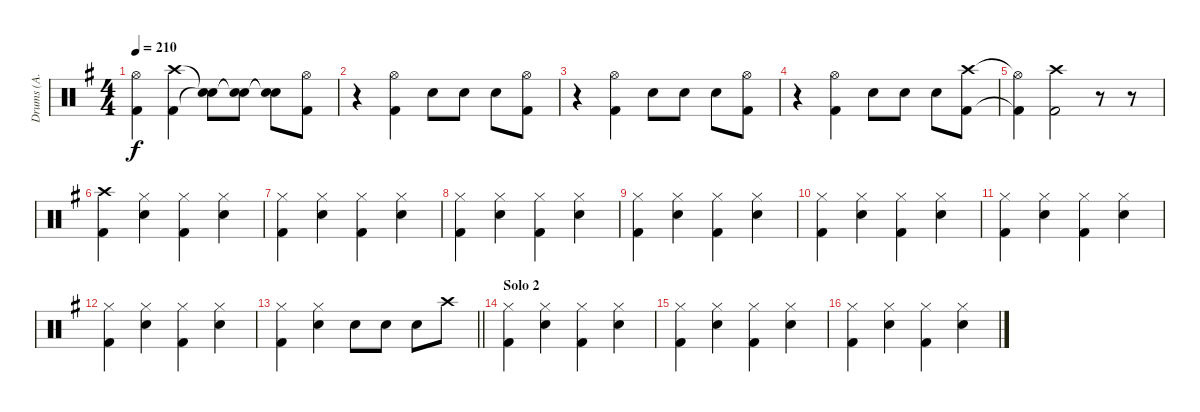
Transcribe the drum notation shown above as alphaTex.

\track ("Drums (А. Манякин)" "Drums (А. ") {instrument percussion}
\staff {score}
\articulation defaults
\ts (4 4)
\tempo 210
\clef neutral
\ks g
("Hi-Hat (open)"{t} "Kick (hit) 2"{t}).4{dy f} ("Crash high (hit)" "Kick (hit) 2").4 ("Snare (hit)"{t} "Snare (hit) 2"{t}).8 ("Snare (hit)"{t} "Snare (hit) 2"{t}).8 ("Snare (hit)"{t} "Snare (hit) 2"{t}).8 ("Hi-Hat (open)" "Kick (hit) 2").8 |
r.4 ("Hi-Hat (open)" "Kick (hit) 2").4 "Snare (hit) 2".8 "Snare (hit) 2".8 "Snare (hit) 2".8 ("Hi-Hat (open)" "Kick (hit) 2").8 |
r.4 ("Hi-Hat (open)" "Kick (hit) 2").4 "Snare (hit) 2".8 "Snare (hit) 2".8 "Snare (hit) 2".8 ("Hi-Hat (open)" "Kick (hit) 2").8 |
r.4 ("Hi-Hat (open)" "Kick (hit) 2").4 "Snare (hit) 2".8 "Snare (hit) 2".8 "Snare (hit) 2".8 ("Crash high (hit)" "Kick (hit) 2").8 |
("Hi-Hat (open)"{t} "Kick (hit) 2"{t}).4 ("Crash high (hit)" "Kick (hit) 2").2 r.8 r.8 |
("Crash high (hit)" "Kick (hit) 2").4 ("Hi-Hat (closed)" "Snare (hit) 2").4 ("Hi-Hat (closed)" "Kick (hit) 2").4 ("Hi-Hat (closed)" "Snare (hit) 2").4 |
("Hi-Hat (closed)" "Kick (hit) 2").4 ("Hi-Hat (closed)" "Snare (hit) 2").4 ("Hi-Hat (closed)" "Kick (hit) 2").4 ("Hi-Hat (closed)" "Snare (hit) 2").4 |
("Hi-Hat (closed)" "Kick (hit) 2").4 ("Hi-Hat (closed)" "Snare (hit) 2").4 ("Hi-Hat (closed)" "Kick (hit) 2").4 ("Hi-Hat (closed)" "Snare (hit) 2").4 |
("Hi-Hat (closed)" "Kick (hit) 2").4 ("Hi-Hat (closed)" "Snare (hit) 2").4 ("Hi-Hat (closed)" "Kick (hit) 2").4 ("Hi-Hat (closed)" "Snare (hit) 2").4 |
("Hi-Hat (closed)" "Kick (hit) 2").4 ("Hi-Hat (closed)" "Snare (hit) 2").4 ("Hi-Hat (closed)" "Kick (hit) 2").4 ("Hi-Hat (closed)" "Snare (hit) 2").4 |
("Hi-Hat (closed)" "Kick (hit) 2").4 ("Hi-Hat (closed)" "Snare (hit) 2").4 ("Hi-Hat (closed)" "Kick (hit) 2").4 ("Hi-Hat (closed)" "Snare (hit) 2").4 |
("Hi-Hat (closed)" "Kick (hit) 2").4 ("Hi-Hat (closed)" "Snare (hit) 2").4 ("Hi-Hat (closed)" "Kick (hit) 2").4 ("Hi-Hat (closed)" "Snare (hit) 2").4 |
\barLineRight lightlight
("Hi-Hat (closed)" "Kick (hit) 2").4 ("Hi-Hat (closed)" "Snare (hit) 2").4 "Snare (hit) 2".8 "Snare (hit) 2".8 "Snare (hit) 2".8 "Crash high (hit)".8 |
\section ("" "Solo 2")
("Hi-Hat (closed)" "Kick (hit) 2").4 ("Hi-Hat (closed)" "Snare (hit) 2").4 ("Hi-Hat (closed)" "Kick (hit) 2").4 ("Hi-Hat (closed)" "Snare (hit) 2").4 |
("Hi-Hat (closed)" "Kick (hit) 2").4 ("Hi-Hat (closed)" "Snare (hit) 2").4 ("Hi-Hat (closed)" "Kick (hit) 2").4 ("Hi-Hat (closed)" "Snare (hit) 2").4 |
("Hi-Hat (closed)" "Kick (hit) 2").4 ("Hi-Hat (closed)" "Snare (hit) 2").4 ("Hi-Hat (closed)" "Kick (hit) 2").4 ("Hi-Hat (closed)" "Snare (hit) 2").4
